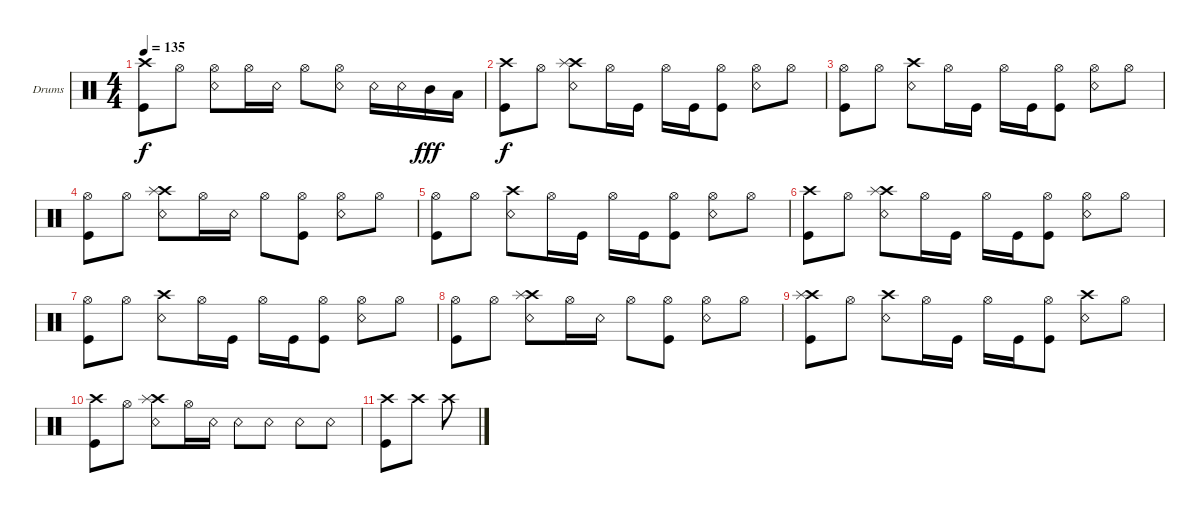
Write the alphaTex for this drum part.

\defaultSystemsLayout 4
\bracketExtendMode groupsimilarinstruments
\firstSystemTrackNameOrientation horizontal
\otherSystemsTrackNameOrientation horizontal
\track ("Drumkit" "Drums") {instrument percussion}
\staff {score}
\articulation defaults
\ts (4 4)
\tempo 135
\clef neutral
\scale
0.333333
\ks c
("Kick (hit)" "Crash high (hit)").8{dy f} "Hi-Hat (open)".8 ("Snare (rim shot)" "Hi-Hat (open)").8 "Hi-Hat (open)".16 "Snare (rim shot)".16 "Hi-Hat (open)".8 ("Hi-Hat (open)" "Snare (rim shot)").8 "Snare (rim shot)".16 "Snare (rim shot)".16 "Mid Tom (hit)".16{dy fff} "Low Tom (hit)".16 |
\scale
0.333333 ("Kick (hit)" "Crash high (hit)").8{dy f} "Hi-Hat (open)".8 ("Snare (rim shot)" "Crash high (hit)" "Splash (hit)").8 "Hi-Hat (open)".16 "Kick (hit)".16 "Hi-Hat (open)".16 "Kick (hit)".16 ("Kick (hit)" "Hi-Hat (open)").8 ("Snare (rim shot)" "Hi-Hat (open)").8 "Hi-Hat (open)".8 |
\scale
0.333333 ("Kick (hit)" "Hi-Hat (open)").8 "Hi-Hat (open)".8 ("Snare (rim shot)" "Crash high (hit)").8 "Hi-Hat (open)".16 "Kick (hit)".16 "Hi-Hat (open)".16 "Kick (hit)".16 ("Kick (hit)" "Hi-Hat (open)").8 ("Snare (rim shot)" "Hi-Hat (open)").8 "Hi-Hat (open)".8 |
\scale
0.333333 ("Kick (hit)" "Hi-Hat (open)").8 "Hi-Hat (open)".8 ("Snare (rim shot)" "Crash high (hit)" "Splash (hit)").8 "Hi-Hat (open)".16 "Snare (rim shot)".16 "Hi-Hat (open)".8 ("Hi-Hat (open)" "Kick (hit)").8 ("Snare (rim shot)" "Hi-Hat (open)").8 "Hi-Hat (open)".8 |
\scale
0.333333 ("Kick (hit)" "Hi-Hat (open)").8 "Hi-Hat (open)".8 ("Snare (rim shot)" "Crash high (hit)").8 "Hi-Hat (open)".16 "Kick (hit)".16 "Hi-Hat (open)".16 "Kick (hit)".16 ("Kick (hit)" "Hi-Hat (open)").8 ("Snare (rim shot)" "Hi-Hat (open)").8 "Hi-Hat (open)".8 |
\scale
0.333333 ("Kick (hit)" "Crash high (hit)").8 "Hi-Hat (open)".8 ("Snare (rim shot)" "Crash high (hit)" "Splash (hit)").8 "Hi-Hat (open)".16 "Kick (hit)".16 "Hi-Hat (open)".16 "Kick (hit)".16 ("Kick (hit)" "Hi-Hat (open)").8 ("Snare (rim shot)" "Hi-Hat (open)").8 "Hi-Hat (open)".8 |
\scale
0.333333 ("Kick (hit)" "Hi-Hat (open)").8 "Hi-Hat (open)".8 ("Snare (rim shot)" "Crash high (hit)").8 "Hi-Hat (open)".16 "Kick (hit)".16 "Hi-Hat (open)".16 "Kick (hit)".16 ("Kick (hit)" "Hi-Hat (open)").8 ("Snare (rim shot)" "Hi-Hat (open)").8 "Hi-Hat (open)".8 |
\scale
0.333333 ("Kick (hit)" "Hi-Hat (open)").8 "Hi-Hat (open)".8 ("Snare (rim shot)" "Crash high (hit)" "Splash (hit)").8 "Hi-Hat (open)".16 "Snare (rim shot)".16 "Hi-Hat (open)".8 ("Hi-Hat (open)" "Kick (hit)").8 ("Snare (rim shot)" "Hi-Hat (open)").8 "Hi-Hat (open)".8 |
\scale
0.333333 ("Kick (hit)" "Crash high (hit)" "Splash (hit)").8 "Hi-Hat (open)".8 ("Snare (rim shot)" "Crash high (hit)").8 "Hi-Hat (open)".16 "Kick (hit)".16 "Hi-Hat (open)".16 "Kick (hit)".16 ("Kick (hit)" "Hi-Hat (open)").8 ("Snare (rim shot)" "Crash high (hit)").8 "Hi-Hat (open)".8 |
\scale
0.333333 ("Kick (hit)" "Crash high (hit)").8 "Hi-Hat (open)".8 ("Snare (rim shot)" "Crash high (hit)" "Splash (hit)").8 "Hi-Hat (open)".16 "Snare (rim shot)".16 "Snare (rim shot)".8 "Snare (rim shot)".8 "Snare (rim shot)".8 "Snare (rim shot)".8 |
("Kick (hit)" "Crash high (hit)").8 "Crash high (hit)".8 "Crash high (hit)".8
